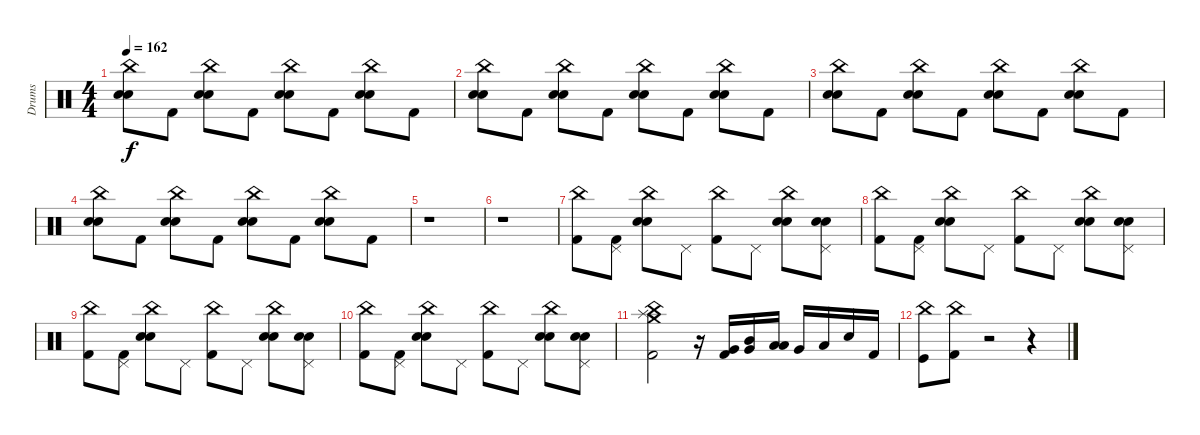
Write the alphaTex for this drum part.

\track ("Drums" "Drums") {instrument percussion}
\staff {score}
\articulation defaults
\ts (4 4)
\tempo 162
\clef neutral
\ks c
("Electric Snare (hit)" "Snare (hit) 2" "China (hit)").8{dy f} "Kick (hit) 2".8 ("Electric Snare (hit)" "Snare (hit) 2" "China (hit)").8 "Kick (hit) 2".8 ("Electric Snare (hit)" "Snare (hit) 2" "China (hit)").8 "Kick (hit) 2".8 ("Electric Snare (hit)" "Snare (hit) 2" "China (hit)").8 "Kick (hit) 2".8 |
("Electric Snare (hit)" "Snare (hit) 2" "China (hit)").8 "Kick (hit) 2".8 ("Electric Snare (hit)" "Snare (hit) 2" "China (hit)").8 "Kick (hit) 2".8 ("Electric Snare (hit)" "Snare (hit) 2" "China (hit)").8 "Kick (hit) 2".8 ("Electric Snare (hit)" "Snare (hit) 2" "China (hit)").8 "Kick (hit) 2".8 |
("Electric Snare (hit)" "Snare (hit) 2" "China (hit)").8 "Kick (hit) 2".8 ("Electric Snare (hit)" "Snare (hit) 2" "China (hit)").8 "Kick (hit) 2".8 ("Electric Snare (hit)" "Snare (hit) 2" "China (hit)").8 "Kick (hit) 2".8 ("Electric Snare (hit)" "Snare (hit) 2" "China (hit)").8 "Kick (hit) 2".8 |
("Electric Snare (hit)" "Snare (hit) 2" "China (hit)").8 "Kick (hit) 2".8 ("Electric Snare (hit)" "Snare (hit) 2" "China (hit)").8 "Kick (hit) 2".8 ("Electric Snare (hit)" "Snare (hit) 2" "China (hit)").8 "Kick (hit) 2".8 ("Electric Snare (hit)" "Snare (hit) 2" "China (hit)").8 "Kick (hit) 2".8 |
r.1 |
r.1 |
("Kick (hit) 2" "China (hit)").8 ("Kick (hit) 2" "Pedal Hi-Hat (hit)").8 ("Electric Snare (hit)" "Snare (hit) 2" "China (hit)").8 "Pedal Hi-Hat (hit)".8 ("Kick (hit) 2" "China (hit)").8 "Pedal Hi-Hat (hit)".8 ("Electric Snare (hit)" "Snare (hit) 2" "China (hit)").8 ("Snare (hit) 2" "Electric Snare (hit)" "Pedal Hi-Hat (hit)").8 |
("Kick (hit) 2" "China (hit)").8 ("Kick (hit) 2" "Pedal Hi-Hat (hit)").8 ("Electric Snare (hit)" "Snare (hit) 2" "China (hit)").8 "Pedal Hi-Hat (hit)".8 ("Kick (hit) 2" "China (hit)").8 "Pedal Hi-Hat (hit)".8 ("Electric Snare (hit)" "Snare (hit) 2" "China (hit)").8 ("Snare (hit) 2" "Electric Snare (hit)" "Pedal Hi-Hat (hit)").8 |
("Kick (hit) 2" "China (hit)").8 ("Kick (hit) 2" "Pedal Hi-Hat (hit)").8 ("Electric Snare (hit)" "Snare (hit) 2" "China (hit)").8 "Pedal Hi-Hat (hit)".8 ("Kick (hit) 2" "China (hit)").8 "Pedal Hi-Hat (hit)".8 ("Electric Snare (hit)" "Snare (hit) 2" "China (hit)").8 ("Snare (hit) 2" "Electric Snare (hit)" "Pedal Hi-Hat (hit)").8 |
("Kick (hit) 2" "China (hit)").8 ("Kick (hit) 2" "Pedal Hi-Hat (hit)").8 ("Electric Snare (hit)" "Snare (hit) 2" "China (hit)").8 "Pedal Hi-Hat (hit)".8 ("Kick (hit) 2" "China (hit)").8 "Pedal Hi-Hat (hit)".8 ("Electric Snare (hit)" "Snare (hit) 2" "China (hit)").8 ("Snare (hit) 2" "Electric Snare (hit)" "Pedal Hi-Hat (hit)").8 |
("China (hit)" "Splash (hit)" "Crash medium (hit)" "Kick (hit) 2").2 r.16 ("Kick (hit) 2" "Very Low Tom (hit)").16 ("Very Low Tom (hit)" "Mid Tom (hit)").16 ("Low Tom (hit)" "Low Tom (hit)").16 "Very Low Tom (hit)".16 "Low Floor Tom (hit)".16 "Snare (hit) 2".16 "Kick (hit) 2".16 |
("Kick (hit)" "China (hit)").8 ("Kick (hit) 2" "China (hit)").8 r.2 r.4
